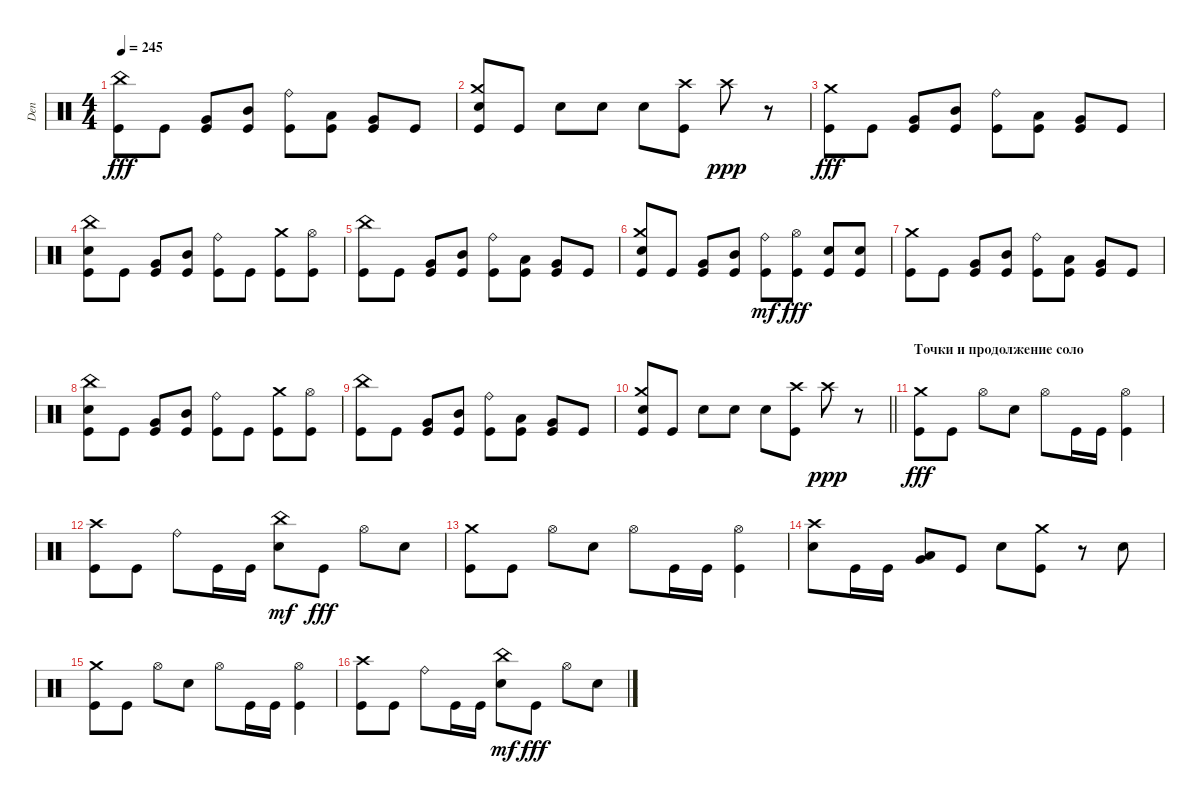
\track ("Den" "Den") {instrument percussion}
\staff {score}
\articulation defaults
\ts (4 4)
\tempo 245
\clef neutral
\ks c
("China (hit)" "Kick (hit)").8{dy fff} "Kick (hit)".8 ("Kick (hit)" "Very Low Tom (hit)").8 ("Kick (hit)" "Mid Tom (hit)").8 ("Kick (hit)" "Ride (bell)").8 ("Kick (hit)" "Low Tom (hit)").8 ("Kick (hit)" "Very Low Tom (hit)").8 "Kick (hit)".8 |
("Kick (hit)" "Crash medium (hit)" "Electric Snare (hit)").8 "Kick (hit)".8 "Electric Snare (hit)".8 "Electric Snare (hit)".8 "Electric Snare (hit)".8 ("Kick (hit)" "Crash high (hit)").8 "Crash high (hit)".8{dy ppp} r.8 |
("Crash medium (hit)" "Kick (hit)").8{dy fff} "Kick (hit)".8 ("Kick (hit)" "Very Low Tom (hit)").8 ("Kick (hit)" "Mid Tom (hit)").8 ("Kick (hit)" "Ride (bell)").8 ("Kick (hit)" "Low Tom (hit)").8 ("Kick (hit)" "Very Low Tom (hit)").8 "Kick (hit)".8 |
("Kick (hit)" "China (hit)" "Electric Snare (hit)").8 "Kick (hit)".8 ("Kick (hit)" "Very Low Tom (hit)").8 ("Kick (hit)" "Mid Tom (hit)").8 ("Kick (hit)" "Ride (bell)").8 "Kick (hit)".8 ("Kick (hit)" "Crash medium (hit)").8 ("Kick (hit)" "Hi-Hat (open)").8 |
("China (hit)" "Kick (hit)").8 "Kick (hit)".8 ("Kick (hit)" "Very Low Tom (hit)").8 ("Kick (hit)" "Mid Tom (hit)").8 ("Kick (hit)" "Ride (bell)").8 ("Kick (hit)" "Low Tom (hit)").8 ("Kick (hit)" "Very Low Tom (hit)").8 "Kick (hit)".8 |
("Kick (hit)" "Crash medium (hit)" "Electric Snare (hit)").8 "Kick (hit)".8 ("Kick (hit)" "Very Low Tom (hit)").8 ("Kick (hit)" "Mid Tom (hit)").8 ("Kick (hit)" "Ride (bell)").8{dy mf} ("Kick (hit)" "Hi-Hat (open)").8{dy fff} ("Kick (hit)" "Electric Snare (hit)").8 ("Kick (hit)" "Electric Snare (hit)").8 |
("Crash medium (hit)" "Kick (hit)").8 "Kick (hit)".8 ("Kick (hit)" "Very Low Tom (hit)").8 ("Kick (hit)" "Mid Tom (hit)").8 ("Kick (hit)" "Ride (bell)").8 ("Kick (hit)" "Low Tom (hit)").8 ("Kick (hit)" "Very Low Tom (hit)").8 "Kick (hit)".8 |
("Kick (hit)" "China (hit)" "Electric Snare (hit)").8 "Kick (hit)".8 ("Kick (hit)" "Very Low Tom (hit)").8 ("Kick (hit)" "Mid Tom (hit)").8 ("Kick (hit)" "Ride (bell)").8 "Kick (hit)".8 ("Kick (hit)" "Crash medium (hit)").8 ("Kick (hit)" "Hi-Hat (open)").8 |
("China (hit)" "Kick (hit)").8 "Kick (hit)".8 ("Kick (hit)" "Very Low Tom (hit)").8 ("Kick (hit)" "Mid Tom (hit)").8 ("Kick (hit)" "Ride (bell)").8 ("Kick (hit)" "Low Tom (hit)").8 ("Kick (hit)" "Very Low Tom (hit)").8 "Kick (hit)".8 |
\barLineRight lightlight
("Kick (hit)" "Crash medium (hit)" "Electric Snare (hit)").8 "Kick (hit)".8 "Electric Snare (hit)".8 "Electric Snare (hit)".8 "Electric Snare (hit)".8 ("Kick (hit)" "Crash high (hit)").8 "Crash high (hit)".8{dy ppp} r.8 |
\section ("" "Точки и продолжение соло")
("Crash medium (hit)" "Kick (hit)").8{dy fff} "Kick (hit)".8 "Hi-Hat (open)".8 "Electric Snare (hit)".8 "Hi-Hat (open)".8 "Kick (hit)".16 "Kick (hit)".16 ("Kick (hit)" "Hi-Hat (open)").4 |
("Kick (hit)" "Crash high (hit)").8 "Kick (hit)".8 "Ride (bell)".8 "Kick (hit)".16 "Kick (hit)".16 ("Electric Snare (hit)" "China (hit)").8{dy mf} "Kick (hit)".8{dy fff} "Hi-Hat (open)".8 "Electric Snare (hit)".8 |
("Crash medium (hit)" "Kick (hit)").8 "Kick (hit)".8 "Hi-Hat (open)".8 "Electric Snare (hit)".8 "Hi-Hat (open)".8 "Kick (hit)".16 "Kick (hit)".16 ("Kick (hit)" "Hi-Hat (open)").4 |
("Electric Snare (hit)" "Crash high (hit)").8 "Kick (hit)".16 "Kick (hit)".16 ("Very Low Tom (hit)" "Low Tom (hit)").8 "Kick (hit)".8 "Electric Snare (hit)".8 ("Crash medium (hit)" "Kick (hit)").8 r.8 "Electric Snare (hit)".8 |
("Crash medium (hit)" "Kick (hit)").8 "Kick (hit)".8 "Hi-Hat (open)".8 "Electric Snare (hit)".8 "Hi-Hat (open)".8 "Kick (hit)".16 "Kick (hit)".16 ("Kick (hit)" "Hi-Hat (open)").4 |
("Kick (hit)" "Crash high (hit)").8 "Kick (hit)".8 "Ride (bell)".8 "Kick (hit)".16 "Kick (hit)".16 ("Electric Snare (hit)" "China (hit)").8{dy mf} "Kick (hit)".8{dy fff} "Hi-Hat (open)".8 "Electric Snare (hit)".8
